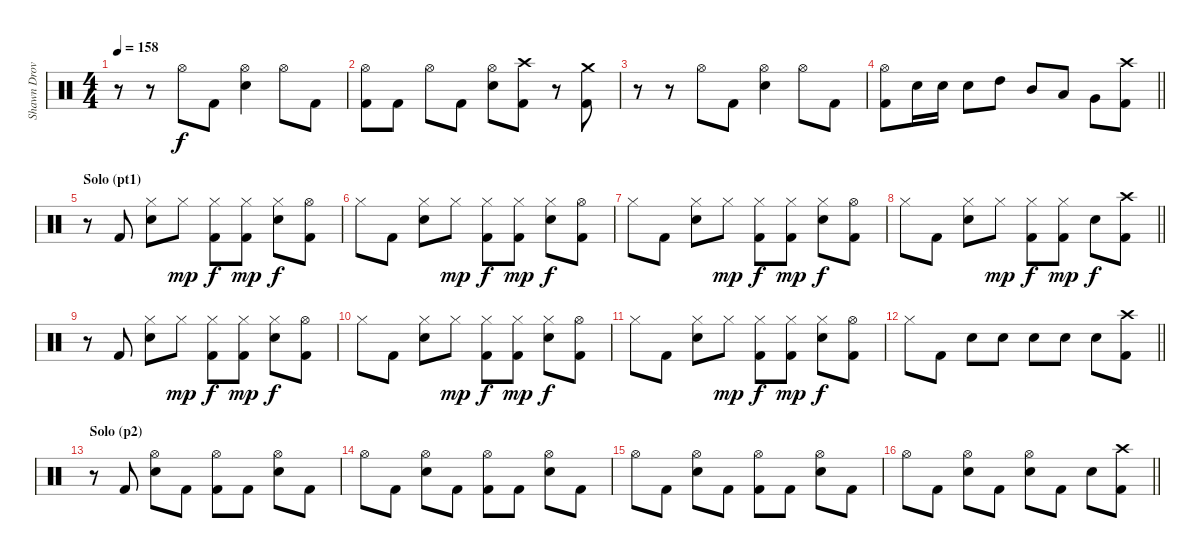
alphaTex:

\track ("Shawn Drover" "Shawn Drov") {instrument percussion}
\staff
\articulation defaults
\ts (4 4)
\tempo 158
\clef neutral
\ks c
r.8{dy f} r.8 "Hi-Hat (open)".8 "Kick (hit) 2".8 ("Hi-Hat (open)" "Snare (hit) 2").4 "Hi-Hat (open)".8 "Kick (hit) 2".8 |
("Hi-Hat (open)" "Kick (hit) 2").8 "Kick (hit) 2".8 "Hi-Hat (open)".8 "Kick (hit) 2".8 ("Hi-Hat (open)" "Snare (hit) 2").8 ("Crash high (hit)" "Kick (hit) 2").8 r.8 ("Crash medium (hit)" "Kick (hit) 2").8 |
r.8 r.8 "Hi-Hat (open)".8 "Kick (hit) 2".8 ("Hi-Hat (open)" "Snare (hit) 2").4 "Hi-Hat (open)".8 "Kick (hit) 2".8 |
\barLineRight lightlight
("Hi-Hat (open)" "Kick (hit) 2").8 "Snare (hit) 2".16 "Snare (hit) 2".16 "Snare (hit) 2".8 "High Tom (hit)".8 "Mid Tom (hit)".8 "Low Tom (hit)".8 "Very Low Tom (hit)".8 ("Crash high (hit)" "Kick (hit) 2").8 |
\section ("" "Solo (pt1)")
r.8 "Kick (hit) 2".8 ("Hi-Hat (closed)" "Snare (hit) 2").8 "Hi-Hat (closed)".8{dy mp} ("Hi-Hat (closed)" "Kick (hit) 2").8{dy f} ("Hi-Hat (closed)" "Kick (hit) 2").8{dy mp} ("Hi-Hat (closed)" "Snare (hit) 2").8{dy f} ("Hi-Hat (open)" "Kick (hit) 2").8 |
"Hi-Hat (closed)".8 "Kick (hit) 2".8 ("Hi-Hat (closed)" "Snare (hit) 2").8 "Hi-Hat (closed)".8{dy mp} ("Hi-Hat (closed)" "Kick (hit) 2").8{dy f} ("Hi-Hat (closed)" "Kick (hit) 2").8{dy mp} ("Hi-Hat (closed)" "Snare (hit) 2").8{dy f} ("Hi-Hat (open)" "Kick (hit) 2").8 |
"Hi-Hat (closed)".8 "Kick (hit) 2".8 ("Hi-Hat (closed)" "Snare (hit) 2").8 "Hi-Hat (closed)".8{dy mp} ("Hi-Hat (closed)" "Kick (hit) 2").8{dy f} ("Hi-Hat (closed)" "Kick (hit) 2").8{dy mp} ("Hi-Hat (closed)" "Snare (hit) 2").8{dy f} ("Hi-Hat (open)" "Kick (hit) 2").8 |
\barLineRight lightlight "Hi-Hat (closed)".8 "Kick (hit) 2".8
("Hi-Hat (closed)" "Snare (hit) 2").8 "Hi-Hat (closed)".8{dy mp} ("Hi-Hat (closed)" "Kick (hit) 2").8{dy f} ("Hi-Hat (closed)" "Kick (hit) 2").8{dy mp} "Snare (hit) 2".8{dy f} ("Crash high (hit)" "Kick (hit) 2").8 |
r.8 "Kick (hit) 2".8 ("Hi-Hat (closed)" "Snare (hit) 2").8 "Hi-Hat (closed)".8{dy mp} ("Hi-Hat (closed)" "Kick (hit) 2").8{dy f} ("Hi-Hat (closed)" "Kick (hit) 2").8{dy mp} ("Hi-Hat (closed)" "Snare (hit) 2").8{dy f} ("Hi-Hat (open)" "Kick (hit) 2").8 |
"Hi-Hat (closed)".8 "Kick (hit) 2".8 ("Hi-Hat (closed)" "Snare (hit) 2").8 "Hi-Hat (closed)".8{dy mp} ("Hi-Hat (closed)" "Kick (hit) 2").8{dy f} ("Hi-Hat (closed)" "Kick (hit) 2").8{dy mp} ("Hi-Hat (closed)" "Snare (hit) 2").8{dy f} ("Hi-Hat (open)" "Kick (hit) 2").8 |
"Hi-Hat (closed)".8 "Kick (hit) 2".8 ("Hi-Hat (closed)" "Snare (hit) 2").8 "Hi-Hat (closed)".8{dy mp} ("Hi-Hat (closed)" "Kick (hit) 2").8{dy f} ("Hi-Hat (closed)" "Kick (hit) 2").8{dy mp} ("Hi-Hat (closed)" "Snare (hit) 2").8{dy f} ("Hi-Hat (open)" "Kick (hit) 2").8 |
\barLineRight lightlight "Hi-Hat (closed)".8 "Kick (hit) 2".8 "Snare (hit) 2".8 "Snare (hit) 2".8 "Snare (hit) 2".8 "Snare (hit) 2".8 "Snare (hit) 2".8
("Crash high (hit)" "Kick (hit) 2").8 |
\section ("" "Solo (p2)")
r.8 "Kick (hit) 2".8 ("Hi-Hat (open)" "Snare (hit) 2").8 "Kick (hit) 2".8 ("Hi-Hat (open)" "Kick (hit) 2").8 "Kick (hit) 2".8 ("Hi-Hat (open)" "Snare (hit) 2").8 "Kick (hit) 2".8 |
"Hi-Hat (open)".8 "Kick (hit) 2".8 ("Hi-Hat (open)" "Snare (hit) 2").8 "Kick (hit) 2".8 ("Hi-Hat (open)" "Kick (hit) 2").8 "Kick (hit) 2".8 ("Hi-Hat (open)" "Snare (hit) 2").8 "Kick (hit) 2".8 |
"Hi-Hat (open)".8 "Kick (hit) 2".8 ("Hi-Hat (open)" "Snare (hit) 2").8 "Kick (hit) 2".8 ("Hi-Hat (open)" "Kick (hit) 2").8 "Kick (hit) 2".8 ("Hi-Hat (open)" "Snare (hit) 2").8 "Kick (hit) 2".8 |
\barLineRight lightlight "Hi-Hat (open)".8 "Kick (hit) 2".8
("Hi-Hat (open)" "Snare (hit) 2").8 "Kick (hit) 2".8 ("Hi-Hat (open)" "Snare (hit) 2").8 "Kick (hit) 2".8 "Snare (hit) 2".8 ("Crash high (hit)" "Kick (hit) 2").8
